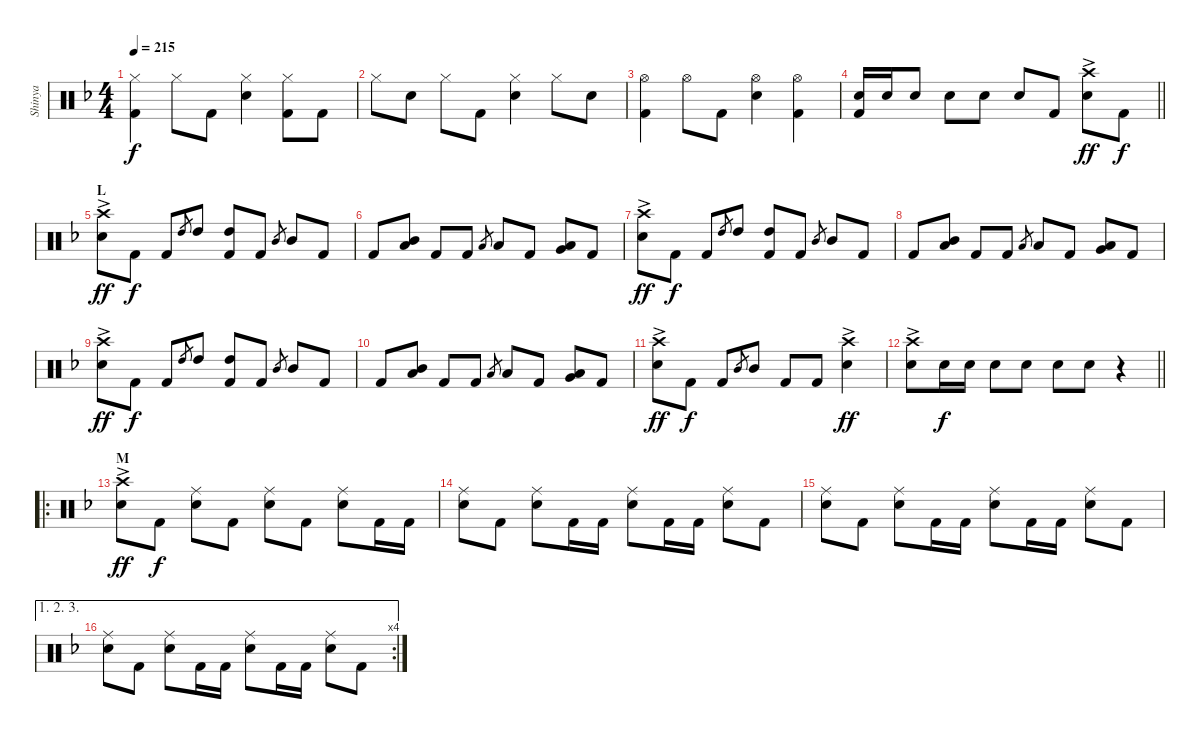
\track ("Shinya" "Shinya") {instrument percussion}
\staff {score}
\articulation defaults
\ts (4 4)
\tempo 215
\clef neutral
\ks f
("Hi-Hat (closed)" "Kick (hit) 2").4{dy f} "Hi-Hat (closed)".8 "Kick (hit) 2".8 ("Hi-Hat (closed)" "Snare (hit) 2").4 ("Hi-Hat (closed)" "Kick (hit) 2").8 "Kick (hit) 2".8 |
"Hi-Hat (closed)".8 "Snare (hit) 2".8 "Hi-Hat (closed)".8 "Kick (hit) 2".8 ("Hi-Hat (closed)" "Snare (hit) 2").4 "Hi-Hat (closed)".8 "Snare (hit) 2".8 |
("Hi-Hat (open)" "Kick (hit) 2").4 "Hi-Hat (open)".8 "Kick (hit) 2".8 ("Hi-Hat (open)" "Snare (hit) 2").4 ("Hi-Hat (open)" "Kick (hit) 2").4 |
\barLineRight lightlight
("Snare (hit) 2" "Kick (hit) 2").16 "Snare (hit) 2".16 "Snare (hit) 2".8 "Snare (hit) 2".8 "Snare (hit) 2".8 "Snare (hit) 2".8 "Kick (hit) 2".8 ("Crash high (hit)"{ac} "Snare (hit) 2").8{dy ff} "Kick (hit) 2".8{dy f} |
\section ("" "L")
("Crash high (hit)"{ac} "Snare (hit) 2").8{dy ff} "Kick (hit) 2".8{dy f} "Kick (hit) 2".8 "High Tom (hit)".8{gr} "High Tom (hit)".8 ("High Tom (hit)" "Kick (hit) 2").8 "Kick (hit) 2".8 "Mid Tom (hit)".8{gr} "Mid Tom (hit)".8 "Kick (hit) 2".8 |
"Kick (hit) 2".8 ("Mid Tom (hit)" "Low Tom (hit)").8 "Kick (hit) 2".8 "Kick (hit) 2".8 "Low Tom (hit)".8{gr} "Low Tom (hit)".8 "Kick (hit) 2".8 ("Low Tom (hit)" "Very Low Tom (hit)").8 "Kick (hit) 2".8 |
("Crash high (hit)"{ac} "Snare (hit) 2").8{dy ff} "Kick (hit) 2".8{dy f} "Kick (hit) 2".8 "High Tom (hit)".8{gr} "High Tom (hit)".8 ("High Tom (hit)" "Kick (hit) 2").8 "Kick (hit) 2".8 "Mid Tom (hit)".8{gr} "Mid Tom (hit)".8 "Kick (hit) 2".8 |
"Kick (hit) 2".8 ("Mid Tom (hit)" "Low Tom (hit)").8 "Kick (hit) 2".8 "Kick (hit) 2".8 "Low Tom (hit)".8{gr} "Low Tom (hit)".8 "Kick (hit) 2".8 ("Low Tom (hit)" "Very Low Tom (hit)").8 "Kick (hit) 2".8 |
("Crash high (hit)"{ac} "Snare (hit) 2").8{dy ff} "Kick (hit) 2".8{dy f} "Kick (hit) 2".8 "High Tom (hit)".8{gr} "High Tom (hit)".8 ("High Tom (hit)" "Kick (hit) 2").8 "Kick (hit) 2".8 "Mid Tom (hit)".8{gr} "Mid Tom (hit)".8 "Kick (hit) 2".8 |
"Kick (hit) 2".8 ("Mid Tom (hit)" "Low Tom (hit)").8 "Kick (hit) 2".8 "Kick (hit) 2".8 "Low Tom (hit)".8{gr} "Low Tom (hit)".8 "Kick (hit) 2".8 ("Low Tom (hit)" "Very Low Tom (hit)").8 "Kick (hit) 2".8 |
("Crash high (hit)"{ac} "Snare (hit) 2").8{dy ff} "Kick (hit) 2".8{dy f} "Kick (hit) 2".8 "Mid Tom (hit)".8{gr} "Mid Tom (hit)".8 "Kick (hit) 2".8 "Kick (hit) 2".8 ("Crash high (hit)"{ac} "Snare (hit) 2").4{dy ff} |
\barLineRight lightlight
("Crash high (hit)"{ac} "Snare (hit) 2").8 "Snare (hit) 2".16{dy f} "Snare (hit) 2".16 "Snare (hit) 2".8 "Snare (hit) 2".8 "Snare (hit) 2".8 "Snare (hit) 2".8 r.4 |
\ro
\section ("" "M")
("Crash high (hit)"{ac} "Snare (hit) 2").8{dy ff} "Kick (hit) 2".8{dy f} ("Ride (middle)" "Snare (hit) 2").8 "Kick (hit) 2".8 ("Ride (middle)" "Snare (hit) 2").8 "Kick (hit) 2".8 ("Ride (middle)" "Snare (hit) 2").8 "Kick (hit) 2".16 "Kick (hit) 2".16 |
("Ride (middle)" "Snare (hit) 2").8 "Kick (hit) 2".8 ("Ride (middle)" "Snare (hit) 2").8 "Kick (hit) 2".16 "Kick (hit) 2".16 ("Ride (middle)" "Snare (hit) 2").8 "Kick (hit) 2".16 "Kick (hit) 2".16 ("Ride (middle)" "Snare (hit) 2").8 "Kick (hit) 2".8 |
("Ride (middle)" "Snare (hit) 2").8 "Kick (hit) 2".8 ("Ride (middle)" "Snare (hit) 2").8 "Kick (hit) 2".16 "Kick (hit) 2".16 ("Ride (middle)" "Snare (hit) 2").8 "Kick (hit) 2".16 "Kick (hit) 2".16 ("Ride (middle)" "Snare (hit) 2").8 "Kick (hit) 2".8 |
\ae (1 2 3)
\rc 4
("Ride (middle)" "Snare (hit) 2").8 "Kick (hit) 2".8 ("Ride (middle)" "Snare (hit) 2").8 "Kick (hit) 2".16 "Kick (hit) 2".16 ("Ride (middle)" "Snare (hit) 2").8 "Kick (hit) 2".16 "Kick (hit) 2".16 ("Ride (middle)" "Snare (hit) 2").8 "Kick (hit) 2".8
